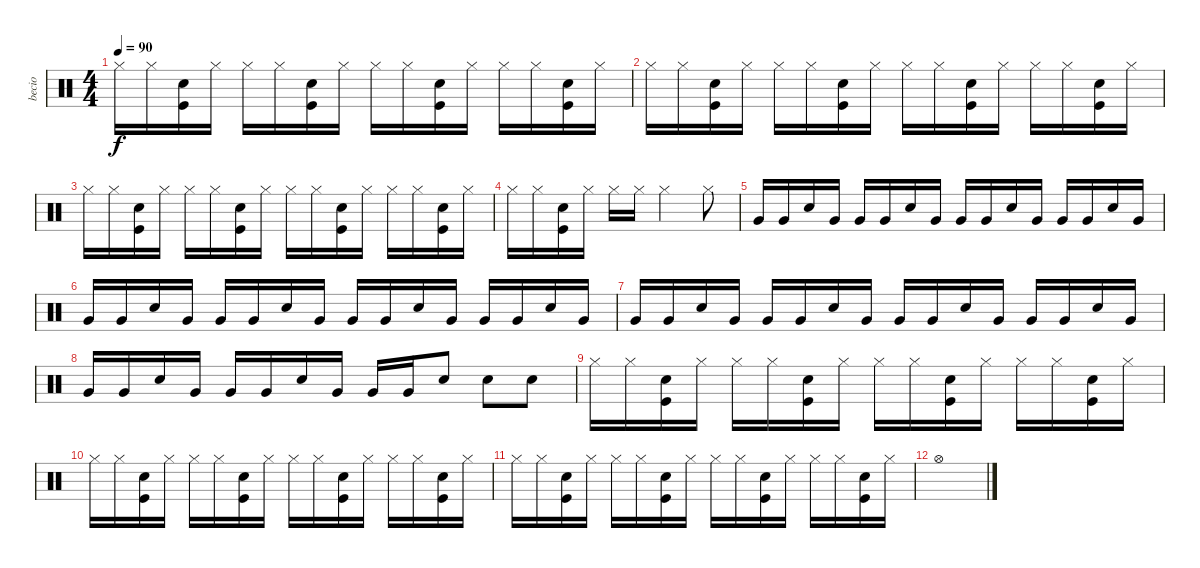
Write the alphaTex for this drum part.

\track ("becio" "becio") {instrument percussion}
\staff {score}
\articulation defaults
\ts (4 4)
\tempo 90
\clef neutral
\ks c "Hi-Hat (closed)".16{dy f} "Hi-Hat (closed)".16
("Electric Snare (hit)" "Kick (hit)").16 "Hi-Hat (closed)".16 "Hi-Hat (closed)".16 "Hi-Hat (closed)".16 ("Electric Snare (hit)" "Kick (hit)").16 "Hi-Hat (closed)".16 "Hi-Hat (closed)".16 "Hi-Hat (closed)".16 ("Electric Snare (hit)" "Kick (hit)").16 "Hi-Hat (closed)".16 "Hi-Hat (closed)".16 "Hi-Hat (closed)".16 ("Electric Snare (hit)" "Kick (hit)").16 "Hi-Hat (closed)".16 |
"Hi-Hat (closed)".16 "Hi-Hat (closed)".16 ("Electric Snare (hit)" "Kick (hit)").16 "Hi-Hat (closed)".16 "Hi-Hat (closed)".16 "Hi-Hat (closed)".16 ("Electric Snare (hit)" "Kick (hit)").16 "Hi-Hat (closed)".16 "Hi-Hat (closed)".16 "Hi-Hat (closed)".16 ("Electric Snare (hit)" "Kick (hit)").16 "Hi-Hat (closed)".16 "Hi-Hat (closed)".16 "Hi-Hat (closed)".16 ("Electric Snare (hit)" "Kick (hit)").16 "Hi-Hat (closed)".16 |
"Hi-Hat (closed)".16 "Hi-Hat (closed)".16 ("Electric Snare (hit)" "Kick (hit)").16 "Hi-Hat (closed)".16 "Hi-Hat (closed)".16 "Hi-Hat (closed)".16 ("Electric Snare (hit)" "Kick (hit)").16 "Hi-Hat (closed)".16 "Hi-Hat (closed)".16 "Hi-Hat (closed)".16 ("Electric Snare (hit)" "Kick (hit)").16 "Hi-Hat (closed)".16 "Hi-Hat (closed)".16 "Hi-Hat (closed)".16 ("Electric Snare (hit)" "Kick (hit)").16 "Hi-Hat (closed)".16 |
"Hi-Hat (closed)".16 "Hi-Hat (closed)".16 ("Electric Snare (hit)" "Kick (hit)").16 "Hi-Hat (closed)".16 "Hi-Hat (closed)".16 "Hi-Hat (closed)".16 "Hi-Hat (closed)".2 "Hi-Hat (closed)".8 |
"Very Low Tom (hit)".16 "Very Low Tom (hit)".16 "Electric Snare (hit)".16 "Very Low Tom (hit)".16 "Very Low Tom (hit)".16 "Very Low Tom (hit)".16 "Electric Snare (hit)".16 "Very Low Tom (hit)".16 "Very Low Tom (hit)".16 "Very Low Tom (hit)".16 "Electric Snare (hit)".16 "Very Low Tom (hit)".16 "Very Low Tom (hit)".16 "Very Low Tom (hit)".16 "Electric Snare (hit)".16 "Very Low Tom (hit)".16 |
"Very Low Tom (hit)".16 "Very Low Tom (hit)".16 "Electric Snare (hit)".16 "Very Low Tom (hit)".16 "Very Low Tom (hit)".16 "Very Low Tom (hit)".16 "Electric Snare (hit)".16 "Very Low Tom (hit)".16 "Very Low Tom (hit)".16 "Very Low Tom (hit)".16 "Electric Snare (hit)".16 "Very Low Tom (hit)".16 "Very Low Tom (hit)".16 "Very Low Tom (hit)".16 "Electric Snare (hit)".16 "Very Low Tom (hit)".16 |
"Very Low Tom (hit)".16 "Very Low Tom (hit)".16 "Electric Snare (hit)".16 "Very Low Tom (hit)".16 "Very Low Tom (hit)".16 "Very Low Tom (hit)".16 "Electric Snare (hit)".16 "Very Low Tom (hit)".16 "Very Low Tom (hit)".16 "Very Low Tom (hit)".16 "Electric Snare (hit)".16 "Very Low Tom (hit)".16 "Very Low Tom (hit)".16 "Very Low Tom (hit)".16 "Electric Snare (hit)".16 "Very Low Tom (hit)".16 |
"Very Low Tom (hit)".16 "Very Low Tom (hit)".16 "Electric Snare (hit)".16 "Very Low Tom (hit)".16 "Very Low Tom (hit)".16 "Very Low Tom (hit)".16 "Electric Snare (hit)".16 "Very Low Tom (hit)".16 "Very Low Tom (hit)".16 "Very Low Tom (hit)".16 "Electric Snare (hit)".8 "Electric Snare (hit)".8 "Electric Snare (hit)".8 |
"Hi-Hat (closed)".16 "Hi-Hat (closed)".16 ("Electric Snare (hit)" "Kick (hit)").16 "Hi-Hat (closed)".16 "Hi-Hat (closed)".16 "Hi-Hat (closed)".16 ("Electric Snare (hit)" "Kick (hit)").16 "Hi-Hat (closed)".16 "Hi-Hat (closed)".16 "Hi-Hat (closed)".16 ("Electric Snare (hit)" "Kick (hit)").16 "Hi-Hat (closed)".16 "Hi-Hat (closed)".16 "Hi-Hat (closed)".16 ("Electric Snare (hit)" "Kick (hit)").16 "Hi-Hat (closed)".16 |
"Hi-Hat (closed)".16 "Hi-Hat (closed)".16 ("Electric Snare (hit)" "Kick (hit)").16 "Hi-Hat (closed)".16 "Hi-Hat (closed)".16 "Hi-Hat (closed)".16 ("Electric Snare (hit)" "Kick (hit)").16 "Hi-Hat (closed)".16 "Hi-Hat (closed)".16 "Hi-Hat (closed)".16 ("Electric Snare (hit)" "Kick (hit)").16 "Hi-Hat (closed)".16 "Hi-Hat (closed)".16 "Hi-Hat (closed)".16 ("Electric Snare (hit)" "Kick (hit)").16 "Hi-Hat (closed)".16 |
"Hi-Hat (closed)".16 "Hi-Hat (closed)".16 ("Electric Snare (hit)" "Kick (hit)").16 "Hi-Hat (closed)".16 "Hi-Hat (closed)".16 "Hi-Hat (closed)".16 ("Electric Snare (hit)" "Kick (hit)").16 "Hi-Hat (closed)".16 "Hi-Hat (closed)".16 "Hi-Hat (closed)".16 ("Electric Snare (hit)" "Kick (hit)").16 "Hi-Hat (closed)".16 "Hi-Hat (closed)".16 "Hi-Hat (closed)".16 ("Electric Snare (hit)" "Kick (hit)").16 "Hi-Hat (closed)".16 |
"Hi-Hat (open)".1
